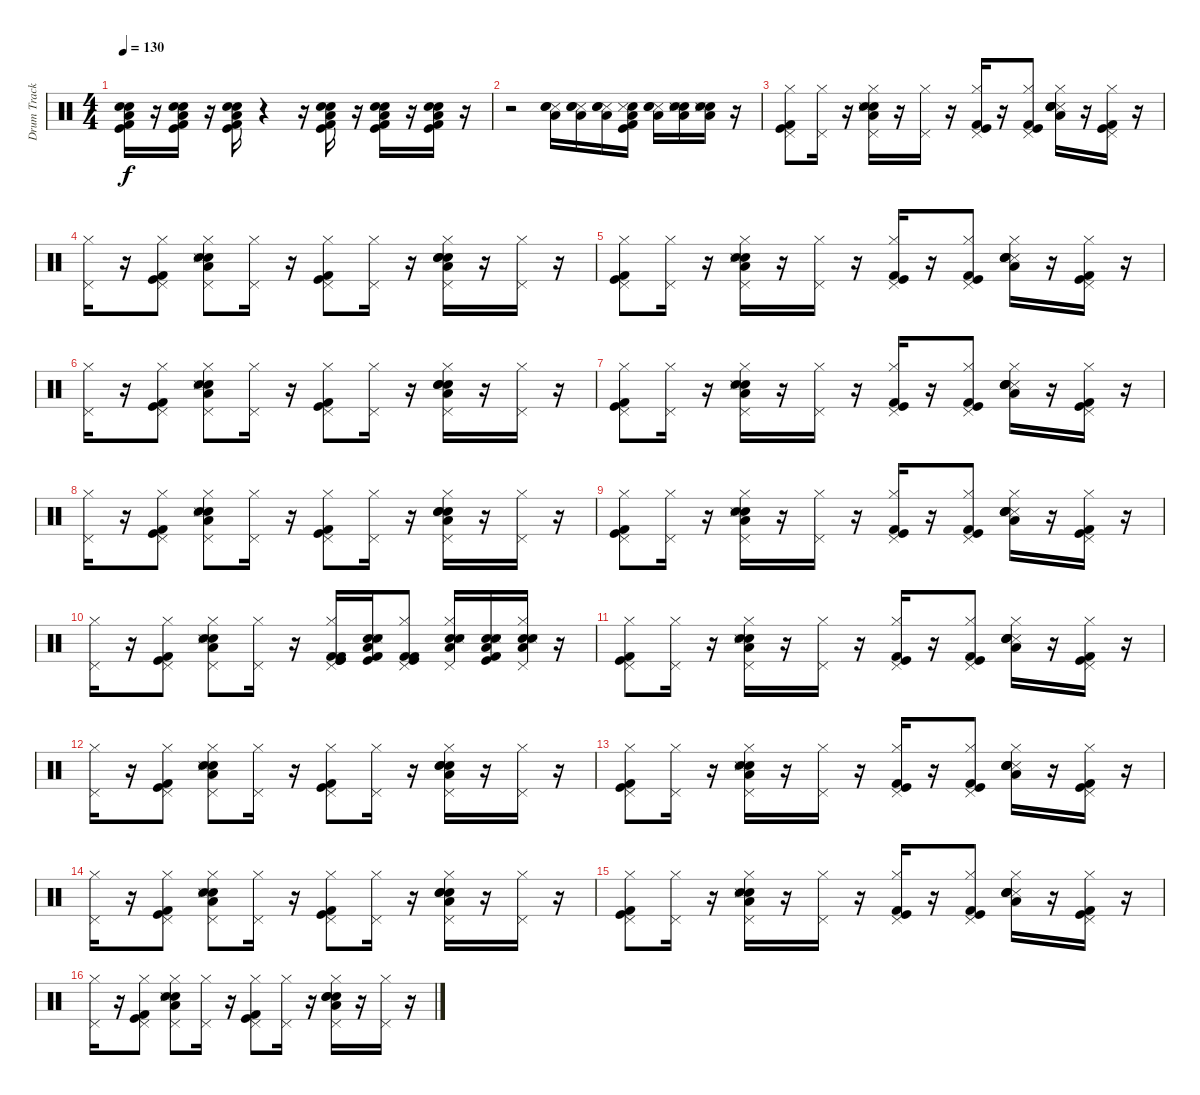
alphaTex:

\track ("Drum Track" "Drum Track") {instrument percussion}
\staff {score}
\articulation defaults
\ts (4 4)
\tempo 130
\clef neutral
\ks c
("Snare (hit) 2" "Electric Snare (hit)" "Kick (hit) 2" "Kick (hit)" "Low Floor Tom (hit)").16{dy f} r.16 ("Electric Snare (hit)" "Snare (hit) 2" "Kick (hit) 2" "Kick (hit)" "Low Floor Tom (hit)").16 r.16 ("Electric Snare (hit)" "Snare (hit) 2" "Kick (hit) 2" "Kick (hit)" "Low Floor Tom (hit)").16 r.4 r.16 ("Snare (hit) 2" "Kick (hit) 2" "Kick (hit)" "Low Floor Tom (hit)" "Electric Snare (hit)").16 r.16 ("Snare (hit) 2" "Kick (hit) 2" "Kick (hit)" "Low Floor Tom (hit)" "Electric Snare (hit)").16 r.16 ("Electric Snare (hit)" "Snare (hit) 2" "Kick (hit) 2" "Kick (hit)" "Low Floor Tom (hit)").16 r.16 |
r.2 ("Snare (side stick) 3" "Low Floor Tom (hit)" "Snare (hit) 2" "Electric Snare (hit)").16 ("Snare (side stick) 3" "Low Floor Tom (hit)" "Electric Snare (hit)" "Snare (hit) 2").16 ("Snare (side stick) 3" "Low Floor Tom (hit)" "Electric Snare (hit)" "Snare (hit) 2").16 ("Electric Snare (hit)" "Snare (side stick) 3" "Low Floor Tom (hit)" "Kick (hit) 2" "Kick (hit)").16 ("Snare (side stick) 3" "Low Floor Tom (hit)" "Electric Snare (hit)" "Snare (hit) 2").16 ("Electric Snare (hit)" "Snare (hit) 2" "Snare (side stick) 3" "Low Floor Tom (hit)").16 ("Electric Snare (hit)" "Snare (hit) 2" "Snare (side stick) 3" "Low Floor Tom (hit)").16 r.16 |
("Kick (hit) 2" "Kick (hit)" "Hi-Hat (closed)" "Pedal Hi-Hat (hit)").8 ("Hi-Hat (closed)" "Pedal Hi-Hat (hit)").16 r.16 ("Electric Snare (hit)" "Snare (hit) 2" "Snare (side stick) 3" "Hi-Hat (closed)" "Pedal Hi-Hat (hit)" "Low Floor Tom (hit)").16 r.16 ("Hi-Hat (closed)" "Pedal Hi-Hat (hit)").16 r.16 ("Kick (hit) 2" "Kick (hit)" "Hi-Hat (closed)" "Pedal Hi-Hat (hit)").16 r.16 ("Kick (hit) 2" "Kick (hit)" "Hi-Hat (closed)" "Pedal Hi-Hat (hit)").8 ("Snare (side stick) 3" "Snare (hit) 2" "Electric Snare (hit)" "Electric Snare (hit)" "Low Floor Tom (hit)" "Hi-Hat (closed)").16 r.16 ("Kick (hit) 2" "Kick (hit)" "Hi-Hat (closed)" "Pedal Hi-Hat (hit)").16 r.16 |
("Pedal Hi-Hat (hit)" "Hi-Hat (closed)").16 r.16 ("Kick (hit) 2" "Kick (hit)" "Hi-Hat (closed)" "Pedal Hi-Hat (hit)").8 ("Hi-Hat (closed)" "Pedal Hi-Hat (hit)" "Low Floor Tom (hit)" "Electric Snare (hit)" "Snare (hit) 2" "Snare (side stick) 3").8 ("Hi-Hat (closed)" "Pedal Hi-Hat (hit)").16 r.16 ("Hi-Hat (closed)" "Pedal Hi-Hat (hit)" "Kick (hit) 2" "Kick (hit)").8 ("Hi-Hat (closed)" "Pedal Hi-Hat (hit)").16 r.16 ("Hi-Hat (closed)" "Pedal Hi-Hat (hit)" "Low Floor Tom (hit)" "Electric Snare (hit)" "Electric Snare (hit)" "Snare (hit) 2").16 r.16 ("Hi-Hat (closed)" "Pedal Hi-Hat (hit)").16 r.16 |
("Kick (hit) 2" "Kick (hit)" "Hi-Hat (closed)" "Pedal Hi-Hat (hit)").8 ("Hi-Hat (closed)" "Pedal Hi-Hat (hit)").16 r.16 ("Electric Snare (hit)" "Snare (hit) 2" "Snare (side stick) 3" "Hi-Hat (closed)" "Pedal Hi-Hat (hit)" "Low Floor Tom (hit)").16 r.16 ("Hi-Hat (closed)" "Pedal Hi-Hat (hit)").16 r.16 ("Kick (hit) 2" "Kick (hit)" "Hi-Hat (closed)" "Pedal Hi-Hat (hit)").16 r.16 ("Kick (hit) 2" "Kick (hit)" "Hi-Hat (closed)" "Pedal Hi-Hat (hit)").8 ("Snare (side stick) 3" "Snare (hit) 2" "Electric Snare (hit)" "Electric Snare (hit)" "Low Floor Tom (hit)" "Hi-Hat (closed)").16 r.16 ("Kick (hit) 2" "Kick (hit)" "Hi-Hat (closed)" "Pedal Hi-Hat (hit)").16 r.16 |
("Pedal Hi-Hat (hit)" "Hi-Hat (closed)").16 r.16 ("Kick (hit) 2" "Kick (hit)" "Hi-Hat (closed)" "Pedal Hi-Hat (hit)").8 ("Hi-Hat (closed)" "Pedal Hi-Hat (hit)" "Low Floor Tom (hit)" "Electric Snare (hit)" "Snare (hit) 2" "Snare (side stick) 3").8 ("Hi-Hat (closed)" "Pedal Hi-Hat (hit)").16 r.16 ("Hi-Hat (closed)" "Pedal Hi-Hat (hit)" "Kick (hit) 2" "Kick (hit)").8 ("Hi-Hat (closed)" "Pedal Hi-Hat (hit)").16 r.16 ("Hi-Hat (closed)" "Pedal Hi-Hat (hit)" "Low Floor Tom (hit)" "Electric Snare (hit)" "Electric Snare (hit)" "Snare (hit) 2").16 r.16 ("Hi-Hat (closed)" "Pedal Hi-Hat (hit)").16 r.16 |
("Kick (hit) 2" "Kick (hit)" "Hi-Hat (closed)" "Pedal Hi-Hat (hit)").8 ("Hi-Hat (closed)" "Pedal Hi-Hat (hit)").16 r.16 ("Electric Snare (hit)" "Snare (hit) 2" "Snare (side stick) 3" "Hi-Hat (closed)" "Pedal Hi-Hat (hit)" "Low Floor Tom (hit)").16 r.16 ("Hi-Hat (closed)" "Pedal Hi-Hat (hit)").16 r.16 ("Kick (hit) 2" "Kick (hit)" "Hi-Hat (closed)" "Pedal Hi-Hat (hit)").16 r.16 ("Kick (hit) 2" "Kick (hit)" "Hi-Hat (closed)" "Pedal Hi-Hat (hit)").8 ("Snare (side stick) 3" "Snare (hit) 2" "Electric Snare (hit)" "Electric Snare (hit)" "Low Floor Tom (hit)" "Hi-Hat (closed)").16 r.16 ("Kick (hit) 2" "Kick (hit)" "Hi-Hat (closed)" "Pedal Hi-Hat (hit)").16 r.16 |
("Pedal Hi-Hat (hit)" "Hi-Hat (closed)").16 r.16 ("Kick (hit) 2" "Kick (hit)" "Hi-Hat (closed)" "Pedal Hi-Hat (hit)").8 ("Hi-Hat (closed)" "Pedal Hi-Hat (hit)" "Low Floor Tom (hit)" "Electric Snare (hit)" "Snare (hit) 2" "Snare (side stick) 3").8 ("Hi-Hat (closed)" "Pedal Hi-Hat (hit)").16 r.16 ("Hi-Hat (closed)" "Pedal Hi-Hat (hit)" "Kick (hit) 2" "Kick (hit)").8 ("Hi-Hat (closed)" "Pedal Hi-Hat (hit)").16 r.16 ("Hi-Hat (closed)" "Pedal Hi-Hat (hit)" "Low Floor Tom (hit)" "Electric Snare (hit)" "Electric Snare (hit)" "Snare (hit) 2").16 r.16 ("Hi-Hat (closed)" "Pedal Hi-Hat (hit)").16 r.16 |
("Kick (hit) 2" "Kick (hit)" "Hi-Hat (closed)" "Pedal Hi-Hat (hit)").8 ("Hi-Hat (closed)" "Pedal Hi-Hat (hit)").16 r.16 ("Electric Snare (hit)" "Snare (hit) 2" "Snare (side stick) 3" "Hi-Hat (closed)" "Pedal Hi-Hat (hit)" "Low Floor Tom (hit)").16 r.16 ("Hi-Hat (closed)" "Pedal Hi-Hat (hit)").16 r.16 ("Kick (hit) 2" "Kick (hit)" "Hi-Hat (closed)" "Pedal Hi-Hat (hit)").16 r.16 ("Kick (hit) 2" "Kick (hit)" "Hi-Hat (closed)" "Pedal Hi-Hat (hit)").8 ("Snare (side stick) 3" "Snare (hit) 2" "Electric Snare (hit)" "Electric Snare (hit)" "Low Floor Tom (hit)" "Hi-Hat (closed)").16 r.16 ("Kick (hit) 2" "Kick (hit)" "Hi-Hat (closed)" "Pedal Hi-Hat (hit)").16 r.16 |
("Pedal Hi-Hat (hit)" "Hi-Hat (closed)").16 r.16 ("Kick (hit) 2" "Kick (hit)" "Hi-Hat (closed)" "Pedal Hi-Hat (hit)").8 ("Hi-Hat (closed)" "Pedal Hi-Hat (hit)" "Low Floor Tom (hit)" "Electric Snare (hit)" "Snare (hit) 2" "Snare (side stick) 3").8 ("Hi-Hat (closed)" "Pedal Hi-Hat (hit)").16 r.16 ("Hi-Hat (closed)" "Pedal Hi-Hat (hit)" "Kick (hit) 2" "Kick (hit)" "Kick (hit)" "Kick (hit) 2").16 ("Low Floor Tom (hit)" "Electric Snare (hit)" "Snare (hit) 2" "Snare (side stick) 3" "Kick (hit) 2" "Kick (hit)").16 ("Hi-Hat (closed)" "Pedal Hi-Hat (hit)" "Kick (hit) 2" "Kick (hit)" "Kick (hit) 2").8 ("Hi-Hat (closed)" "Pedal Hi-Hat (hit)" "Low Floor Tom (hit)" "Electric Snare (hit)" "Snare (hit) 2" "Snare (side stick) 3").16 ("Low Floor Tom (hit)" "Electric Snare (hit)" "Snare (hit) 2" "Snare (side stick) 3" "Kick (hit) 2" "Kick (hit)").16 ("Hi-Hat (closed)" "Pedal Hi-Hat (hit)" "Low Floor Tom (hit)" "Electric Snare (hit)" "Snare (hit) 2" "Snare (side stick) 3").16 r.16 |
("Kick (hit) 2" "Kick (hit)" "Hi-Hat (closed)" "Pedal Hi-Hat (hit)").8 ("Hi-Hat (closed)" "Pedal Hi-Hat (hit)").16 r.16 ("Electric Snare (hit)" "Snare (hit) 2" "Snare (side stick) 3" "Hi-Hat (closed)" "Pedal Hi-Hat (hit)" "Low Floor Tom (hit)").16 r.16 ("Hi-Hat (closed)" "Pedal Hi-Hat (hit)").16 r.16 ("Kick (hit) 2" "Kick (hit)" "Hi-Hat (closed)" "Pedal Hi-Hat (hit)").16 r.16 ("Kick (hit) 2" "Kick (hit)" "Hi-Hat (closed)" "Pedal Hi-Hat (hit)").8 ("Snare (side stick) 3" "Snare (hit) 2" "Electric Snare (hit)" "Electric Snare (hit)" "Low Floor Tom (hit)" "Hi-Hat (closed)").16 r.16 ("Kick (hit) 2" "Kick (hit)" "Hi-Hat (closed)" "Pedal Hi-Hat (hit)").16 r.16 |
("Pedal Hi-Hat (hit)" "Hi-Hat (closed)").16 r.16 ("Kick (hit) 2" "Kick (hit)" "Hi-Hat (closed)" "Pedal Hi-Hat (hit)").8 ("Hi-Hat (closed)" "Pedal Hi-Hat (hit)" "Low Floor Tom (hit)" "Electric Snare (hit)" "Snare (hit) 2" "Snare (side stick) 3").8 ("Hi-Hat (closed)" "Pedal Hi-Hat (hit)").16 r.16 ("Hi-Hat (closed)" "Pedal Hi-Hat (hit)" "Kick (hit) 2" "Kick (hit)").8 ("Hi-Hat (closed)" "Pedal Hi-Hat (hit)").16 r.16 ("Hi-Hat (closed)" "Pedal Hi-Hat (hit)" "Low Floor Tom (hit)" "Electric Snare (hit)" "Electric Snare (hit)" "Snare (hit) 2").16 r.16 ("Hi-Hat (closed)" "Pedal Hi-Hat (hit)").16 r.16 |
("Kick (hit) 2" "Kick (hit)" "Hi-Hat (closed)" "Pedal Hi-Hat (hit)").8 ("Hi-Hat (closed)" "Pedal Hi-Hat (hit)").16 r.16 ("Electric Snare (hit)" "Snare (hit) 2" "Snare (side stick) 3" "Hi-Hat (closed)" "Pedal Hi-Hat (hit)" "Low Floor Tom (hit)").16 r.16 ("Hi-Hat (closed)" "Pedal Hi-Hat (hit)").16 r.16 ("Kick (hit) 2" "Kick (hit)" "Hi-Hat (closed)" "Pedal Hi-Hat (hit)").16 r.16 ("Kick (hit) 2" "Kick (hit)" "Hi-Hat (closed)" "Pedal Hi-Hat (hit)").8 ("Snare (side stick) 3" "Snare (hit) 2" "Electric Snare (hit)" "Electric Snare (hit)" "Low Floor Tom (hit)" "Hi-Hat (closed)").16 r.16 ("Kick (hit) 2" "Kick (hit)" "Hi-Hat (closed)" "Pedal Hi-Hat (hit)").16 r.16 |
("Pedal Hi-Hat (hit)" "Hi-Hat (closed)").16 r.16 ("Kick (hit) 2" "Kick (hit)" "Hi-Hat (closed)" "Pedal Hi-Hat (hit)").8 ("Hi-Hat (closed)" "Pedal Hi-Hat (hit)" "Low Floor Tom (hit)" "Electric Snare (hit)" "Snare (hit) 2" "Snare (side stick) 3").8 ("Hi-Hat (closed)" "Pedal Hi-Hat (hit)").16 r.16 ("Hi-Hat (closed)" "Pedal Hi-Hat (hit)" "Kick (hit) 2" "Kick (hit)").8 ("Hi-Hat (closed)" "Pedal Hi-Hat (hit)").16 r.16 ("Hi-Hat (closed)" "Pedal Hi-Hat (hit)" "Low Floor Tom (hit)" "Electric Snare (hit)" "Electric Snare (hit)" "Snare (hit) 2").16 r.16 ("Hi-Hat (closed)" "Pedal Hi-Hat (hit)").16 r.16 |
("Kick (hit) 2" "Kick (hit)" "Hi-Hat (closed)" "Pedal Hi-Hat (hit)").8 ("Hi-Hat (closed)" "Pedal Hi-Hat (hit)").16 r.16 ("Electric Snare (hit)" "Snare (hit) 2" "Snare (side stick) 3" "Hi-Hat (closed)" "Pedal Hi-Hat (hit)" "Low Floor Tom (hit)").16 r.16 ("Hi-Hat (closed)" "Pedal Hi-Hat (hit)").16 r.16 ("Kick (hit) 2" "Kick (hit)" "Hi-Hat (closed)" "Pedal Hi-Hat (hit)").16 r.16 ("Kick (hit) 2" "Kick (hit)" "Hi-Hat (closed)" "Pedal Hi-Hat (hit)").8 ("Snare (side stick) 3" "Snare (hit) 2" "Electric Snare (hit)" "Electric Snare (hit)" "Low Floor Tom (hit)" "Hi-Hat (closed)").16 r.16 ("Kick (hit) 2" "Kick (hit)" "Hi-Hat (closed)" "Pedal Hi-Hat (hit)").16 r.16 |
("Pedal Hi-Hat (hit)" "Hi-Hat (closed)").16 r.16 ("Kick (hit) 2" "Kick (hit)" "Hi-Hat (closed)" "Pedal Hi-Hat (hit)").8 ("Hi-Hat (closed)" "Pedal Hi-Hat (hit)" "Low Floor Tom (hit)" "Electric Snare (hit)" "Snare (hit) 2" "Snare (side stick) 3").8 ("Hi-Hat (closed)" "Pedal Hi-Hat (hit)").16 r.16 ("Hi-Hat (closed)" "Pedal Hi-Hat (hit)" "Kick (hit) 2" "Kick (hit)").8 ("Hi-Hat (closed)" "Pedal Hi-Hat (hit)").16 r.16 ("Hi-Hat (closed)" "Pedal Hi-Hat (hit)" "Low Floor Tom (hit)" "Electric Snare (hit)" "Electric Snare (hit)" "Snare (hit) 2").16 r.16 ("Hi-Hat (closed)" "Pedal Hi-Hat (hit)").16 r.16
